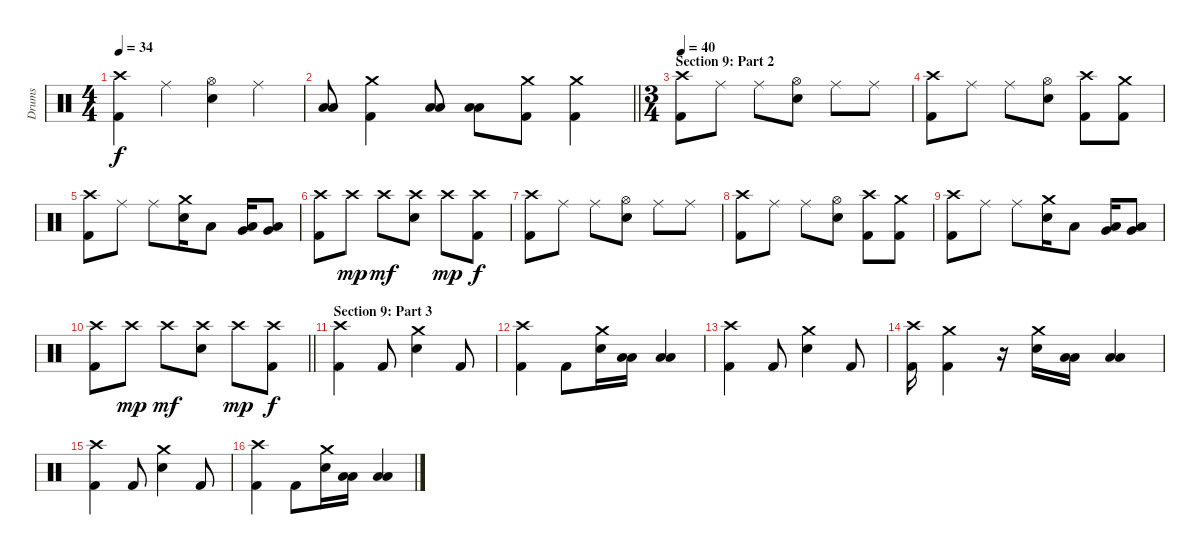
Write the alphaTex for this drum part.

\track ("Drums" "Drums") {instrument percussion}
\staff {score}
\articulation defaults
\ts (4 4)
\tempo 34
\clef neutral
\ks c
("Crash high (hit)" "Kick (hit) 2").4{dy f} "Ride (middle)".4 ("Hi-Hat (open)" "Electric Snare (hit)").4 "Ride (middle)".4 |
\barLineRight lightlight
("Low Floor Tom (hit)" "Low Floor Tom (hit)").8 ("Crash medium (hit)" "Kick (hit) 2").4 ("Low Floor Tom (hit)" "Low Floor Tom (hit)").8 ("Low Floor Tom (hit)" "Low Floor Tom (hit)").8 ("Crash medium (hit)" "Kick (hit) 2").8 ("Crash medium (hit)" "Kick (hit) 2").4 |
\ts (3 4)
\section ("" "Section 9: Part 2")
\tempo 40
("Crash high (hit)" "Kick (hit) 2").8 "Ride (middle)".8 "Ride (middle)".8 ("Hi-Hat (open)" "Electric Snare (hit)").8 "Ride (middle)".8 "Ride (middle)".8 |
("Crash high (hit)" "Kick (hit) 2").8 "Ride (middle)".8 "Ride (middle)".8 ("Hi-Hat (open)" "Electric Snare (hit)").8 ("Crash high (hit)" "Kick (hit) 2").8 ("Crash medium (hit)" "Kick (hit) 2").8 |
("Crash high (hit)" "Kick (hit) 2").8 "Ride (middle)".8 "Ride (middle)".8 ("Crash medium (hit)" "Electric Snare (hit)").16 "Low Tom (hit)".8 ("Low Floor Tom (hit)" "Very Low Tom (hit)").16 ("Low Floor Tom (hit)" "Very Low Tom (hit)").8 |
("Crash high (hit)" "Kick (hit) 2").8 "Crash high (hit)".8{dy mp} "Crash high (hit)".8{dy mf} ("Crash high (hit)" "Electric Snare (hit)").8 "Crash high (hit)".8{dy mp} ("Crash high (hit)" "Kick (hit) 2").8{dy f} |
("Crash high (hit)" "Kick (hit) 2").8 "Ride (middle)".8 "Ride (middle)".8 ("Hi-Hat (open)" "Electric Snare (hit)").8 "Ride (middle)".8 "Ride (middle)".8 |
("Crash high (hit)" "Kick (hit) 2").8 "Ride (middle)".8 "Ride (middle)".8 ("Hi-Hat (open)" "Electric Snare (hit)").8 ("Crash high (hit)" "Kick (hit) 2").8 ("Crash medium (hit)" "Kick (hit) 2").8 |
("Crash high (hit)" "Kick (hit) 2").8 "Ride (middle)".8 "Ride (middle)".8 ("Crash medium (hit)" "Electric Snare (hit)").16 "Low Tom (hit)".8 ("Low Floor Tom (hit)" "Very Low Tom (hit)").16 ("Low Floor Tom (hit)" "Very Low Tom (hit)").8 |
\barLineRight lightlight
("Crash high (hit)" "Kick (hit) 2").8 "Crash high (hit)".8{dy mp} "Crash high (hit)".8{dy mf} ("Crash high (hit)" "Electric Snare (hit)").8 "Crash high (hit)".8{dy mp} ("Crash high (hit)" "Kick (hit) 2").8{dy f} |
\section ("" "Section 9: Part 3")
("Crash high (hit)" "Kick (hit) 2").4 "Kick (hit) 2".8 ("Crash medium (hit)" "Electric Snare (hit)").4 "Kick (hit) 2".8 |
("Crash high (hit)" "Kick (hit) 2").4 "Kick (hit) 2".8 ("Crash medium (hit)" "Electric Snare (hit)").16 ("Low Tom (hit)" "Low Tom (hit)").16{bu 60} ("Low Tom (hit)" "Low Tom (hit)").4{bu 60} |
("Crash high (hit)" "Kick (hit) 2").4 "Kick (hit) 2".8 ("Crash medium (hit)" "Electric Snare (hit)").4 "Kick (hit) 2".8 |
("Crash high (hit)" "Kick (hit) 2").16 ("Crash medium (hit)" "Kick (hit) 2").4 r.16 ("Crash medium (hit)" "Electric Snare (hit)").16 ("Low Tom (hit)" "Low Tom (hit)").16{bu 60} ("Low Tom (hit)" "Low Tom (hit)").4{bu 60} |
("Crash high (hit)" "Kick (hit) 2").4 "Kick (hit) 2".8 ("Crash medium (hit)" "Electric Snare (hit)").4 "Kick (hit) 2".8 |
("Crash high (hit)" "Kick (hit) 2").4 "Kick (hit) 2".8 ("Crash medium (hit)" "Electric Snare (hit)").16 ("Low Tom (hit)" "Low Tom (hit)").16{bu 60} ("Low Tom (hit)" "Low Tom (hit)").4{bu 60}
